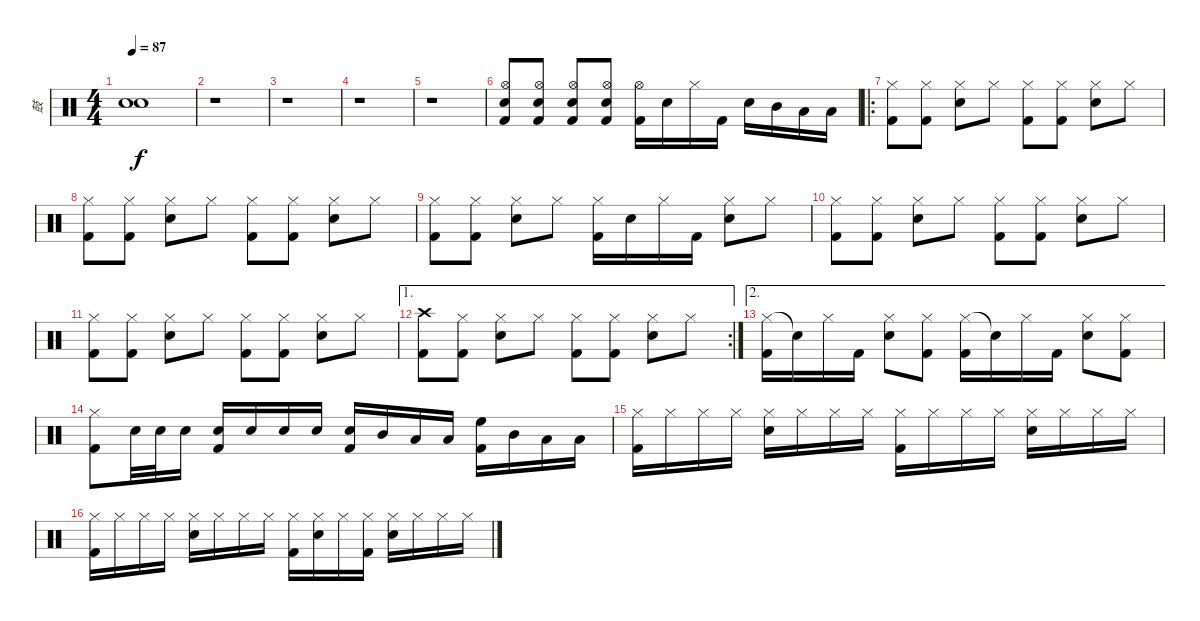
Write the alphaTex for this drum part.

\track ("鼓" "鼓") {instrument percussion}
\staff {score}
\articulation defaults
\ts (4 4)
\tempo 87
\clef neutral
\ks c
("Snare (hit)"{t} "Snare (hit)"{t}).1{dy f} |
r.1 |
r.1 |
r.1 |
r.1 |
("Hi-Hat (open)" "Snare (hit) 2" "Kick (hit) 2").8 ("Hi-Hat (open)" "Snare (hit) 2" "Kick (hit) 2").8 ("Hi-Hat (open)" "Snare (hit) 2" "Kick (hit) 2").8 ("Hi-Hat (open)" "Snare (hit) 2" "Kick (hit) 2").8 ("Hi-Hat (open)" "Kick (hit) 2").16 "Snare (hit) 2".16 "Hi-Hat (closed)".16 "Kick (hit) 2".16 "Snare (hit) 2".16 "Mid Tom (hit)".16 "Low Tom (hit)".16 "Low Floor Tom (hit)".16 |
\ro
("Hi-Hat (closed)" "Kick (hit) 2").8 ("Hi-Hat (closed)" "Kick (hit) 2").8 ("Hi-Hat (closed)" "Snare (hit) 2").8 "Hi-Hat (closed)".8 ("Hi-Hat (closed)" "Kick (hit) 2").8 ("Hi-Hat (closed)" "Kick (hit) 2").8 ("Hi-Hat (closed)" "Snare (hit) 2").8 "Hi-Hat (closed)".8 |
("Hi-Hat (closed)" "Kick (hit) 2").8 ("Hi-Hat (closed)" "Kick (hit) 2").8 ("Hi-Hat (closed)" "Snare (hit) 2").8 "Hi-Hat (closed)".8 ("Hi-Hat (closed)" "Kick (hit) 2").8 ("Hi-Hat (closed)" "Kick (hit) 2").8 ("Hi-Hat (closed)" "Snare (hit) 2").8 "Hi-Hat (closed)".8 |
("Hi-Hat (closed)" "Kick (hit) 2").8 ("Hi-Hat (closed)" "Kick (hit) 2").8 ("Hi-Hat (closed)" "Snare (hit) 2").8 "Hi-Hat (closed)".8 ("Hi-Hat (closed)" "Kick (hit) 2").16 "Snare (hit) 2".16 "Hi-Hat (closed)".16 "Kick (hit) 2".16 ("Hi-Hat (closed)" "Snare (hit) 2").8 "Hi-Hat (closed)".8 |
("Hi-Hat (closed)" "Kick (hit) 2").8 ("Hi-Hat (closed)" "Kick (hit) 2").8 ("Hi-Hat (closed)" "Snare (hit) 2").8 "Hi-Hat (closed)".8 ("Hi-Hat (closed)" "Kick (hit) 2").8 ("Hi-Hat (closed)" "Kick (hit) 2").8 ("Hi-Hat (closed)" "Snare (hit) 2").8 "Hi-Hat (closed)".8 |
("Hi-Hat (closed)" "Kick (hit) 2").8 ("Hi-Hat (closed)" "Kick (hit) 2").8 ("Hi-Hat (closed)" "Snare (hit) 2").8 "Hi-Hat (closed)".8 ("Hi-Hat (closed)" "Kick (hit) 2").8 ("Hi-Hat (closed)" "Kick (hit) 2").8 ("Hi-Hat (closed)" "Snare (hit) 2").8 "Hi-Hat (closed)".8 |
\ae 1
\rc 2
("Crash high (hit)" "Kick (hit) 2").8 ("Hi-Hat (closed)" "Kick (hit) 2").8 ("Hi-Hat (closed)" "Snare (hit) 2").8 "Hi-Hat (closed)".8 ("Hi-Hat (closed)" "Kick (hit) 2").8 ("Hi-Hat (closed)" "Kick (hit) 2").8 ("Hi-Hat (closed)" "Snare (hit) 2").8 "Hi-Hat (closed)".8 |
\ae 2
("Hi-Hat (closed)" "Kick (hit) 2").16 "Snare (hit)"{t}.16 "Hi-Hat (closed)".16 "Kick (hit) 2".16 ("Hi-Hat (closed)" "Snare (hit) 2").8 ("Hi-Hat (closed)" "Kick (hit) 2").8 ("Hi-Hat (closed)" "Kick (hit) 2").16 "Snare (hit)"{t}.16 "Hi-Hat (closed)".16 "Kick (hit) 2".16 ("Hi-Hat (closed)" "Snare (hit) 2").8 ("Hi-Hat (closed)" "Kick (hit) 2").8 |
("Hi-Hat (closed)" "Kick (hit) 2").8 "Snare (hit) 2".32 "Snare (hit) 2".32 "Snare (hit) 2".16 ("Snare (hit) 2" "Kick (hit) 2").16 "Snare (hit) 2".16 "Snare (hit) 2".16 "Snare (hit) 2".16 ("Snare (hit) 2" "Kick (hit) 2").16 "Mid Tom (hit)".16 "Low Tom (hit)".16 "Low Floor Tom (hit)".16 ("High Floor Tom (hit)" "Kick (hit) 2").16 "Mid Tom (hit)".16 "Low Tom (hit)".16 "Low Floor Tom (hit)".16 |
("Hi-Hat (closed)" "Kick (hit) 2").16 "Hi-Hat (closed)".16 "Hi-Hat (closed)".16 "Hi-Hat (closed)".16 ("Hi-Hat (closed)" "Snare (hit) 2").16 "Hi-Hat (closed)".16 "Hi-Hat (closed)".16 "Hi-Hat (closed)".16 ("Hi-Hat (closed)" "Kick (hit) 2").16 "Hi-Hat (closed)".16 "Hi-Hat (closed)".16 "Hi-Hat (closed)".16 ("Hi-Hat (closed)" "Snare (hit) 2").16 "Hi-Hat (closed)".16 "Hi-Hat (closed)".16 "Hi-Hat (closed)".16 |
("Hi-Hat (closed)" "Kick (hit) 2").16 "Hi-Hat (closed)".16 "Hi-Hat (closed)".16 "Hi-Hat (closed)".16 ("Hi-Hat (closed)" "Snare (hit) 2").16 "Hi-Hat (closed)".16 "Hi-Hat (closed)".16 "Hi-Hat (closed)".16 ("Hi-Hat (closed)" "Kick (hit) 2").16 ("Hi-Hat (closed)" "Snare (hit) 2").16 "Hi-Hat (closed)".16 ("Hi-Hat (closed)" "Kick (hit) 2").16 ("Hi-Hat (closed)" "Snare (hit) 2").16 "Hi-Hat (closed)".16 "Hi-Hat (closed)".16 "Hi-Hat (closed)".16
